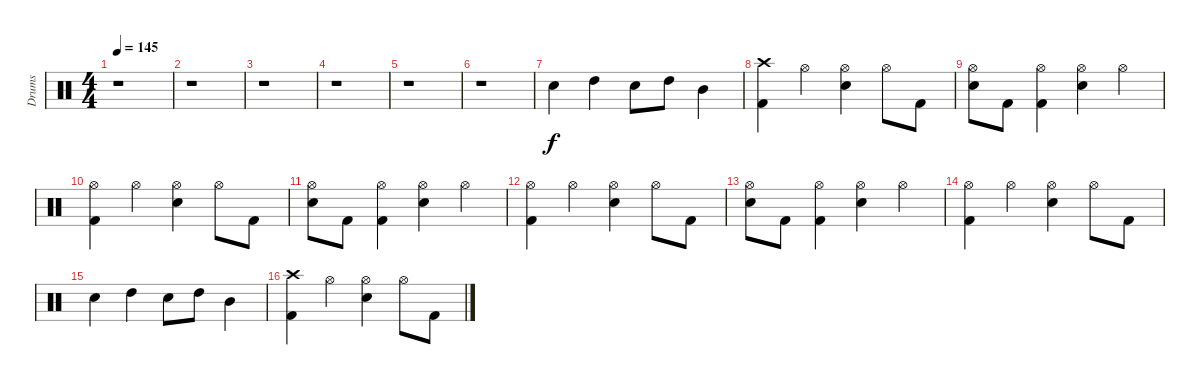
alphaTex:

\track ("Drums" "Drums") {instrument percussion}
\staff {score}
\articulation defaults
\ts (4 4)
\tempo 145
\clef neutral
\ks c
r.1{dy f} |
r.1 |
r.1 |
r.1 |
r.1 |
r.1 |
"Snare (hit) 2".4 "High Tom (hit)".4 "Snare (hit) 2".8 "High Tom (hit)".8 "Mid Tom (hit)".4 |
("Crash high (hit)" "Kick (hit) 2").4 "Hi-Hat (open)".4 ("Hi-Hat (open)" "Snare (hit) 2").4 "Hi-Hat (open)".8 "Kick (hit) 2".8 |
("Hi-Hat (open)" "Snare (hit) 2").8 "Kick (hit) 2".8 ("Hi-Hat (open)" "Kick (hit) 2").4 ("Hi-Hat (open)" "Snare (hit) 2").4 "Hi-Hat (open)".4 |
("Hi-Hat (open)" "Kick (hit) 2").4 "Hi-Hat (open)".4 ("Hi-Hat (open)" "Snare (hit) 2").4 "Hi-Hat (open)".8 "Kick (hit) 2".8 |
("Hi-Hat (open)" "Snare (hit) 2").8 "Kick (hit) 2".8 ("Hi-Hat (open)" "Kick (hit) 2").4 ("Hi-Hat (open)" "Snare (hit) 2").4 "Hi-Hat (open)".4 |
("Hi-Hat (open)" "Kick (hit) 2").4 "Hi-Hat (open)".4 ("Hi-Hat (open)" "Snare (hit) 2").4 "Hi-Hat (open)".8 "Kick (hit) 2".8 |
("Hi-Hat (open)" "Snare (hit) 2").8 "Kick (hit) 2".8 ("Hi-Hat (open)" "Kick (hit) 2").4 ("Hi-Hat (open)" "Snare (hit) 2").4 "Hi-Hat (open)".4 |
("Hi-Hat (open)" "Kick (hit) 2").4 "Hi-Hat (open)".4 ("Hi-Hat (open)" "Snare (hit) 2").4 "Hi-Hat (open)".8 "Kick (hit) 2".8 |
"Snare (hit) 2".4 "High Tom (hit)".4 "Snare (hit) 2".8 "High Tom (hit)".8 "Mid Tom (hit)".4 |
("Crash high (hit)" "Kick (hit) 2").4 "Hi-Hat (open)".4 ("Hi-Hat (open)" "Snare (hit) 2").4 "Hi-Hat (open)".8 "Kick (hit) 2".8
